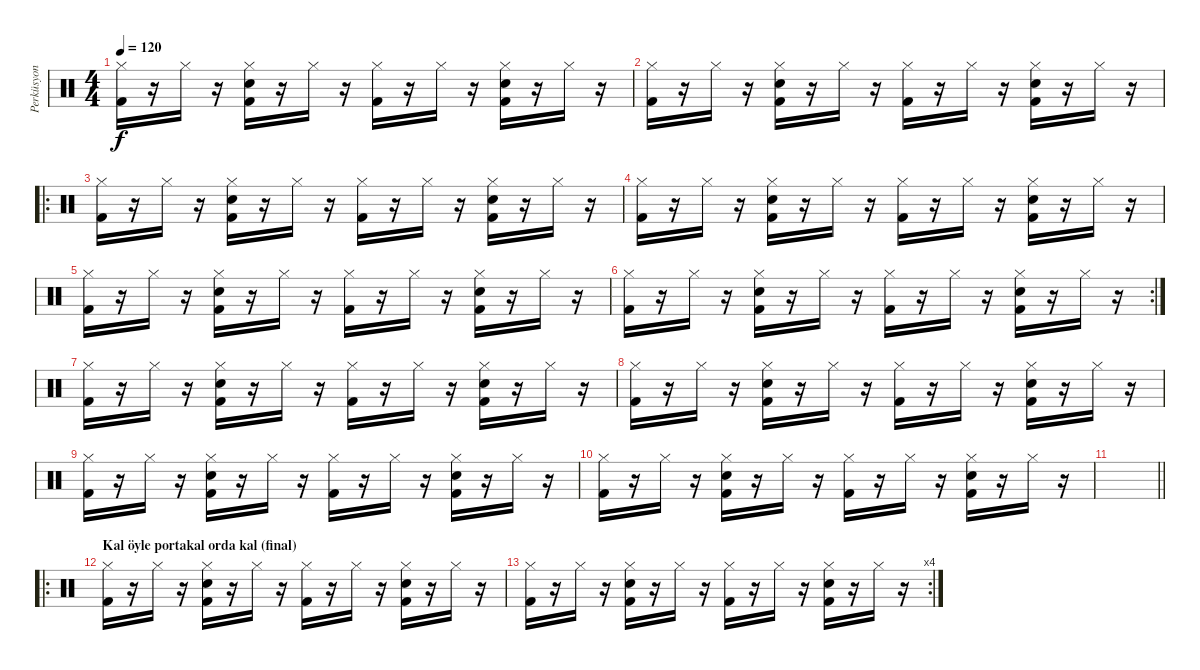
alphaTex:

\track ("Perküsyon" "Perküsyon") {instrument percussion}
\staff {score}
\articulation defaults
\ts (4 4)
\tempo 120
\clef neutral
\ks c
("Hi-Hat (closed)" "Kick (hit) 2").16{dy f} r.16 "Hi-Hat (closed)".16 r.16 ("Hi-Hat (closed)" "Electric Snare (hit)" "Kick (hit) 2").16 r.16 "Hi-Hat (closed)".16 r.16 ("Hi-Hat (closed)" "Kick (hit) 2").16 r.16 "Hi-Hat (closed)".16 r.16 ("Hi-Hat (closed)" "Electric Snare (hit)" "Kick (hit) 2").16 r.16 "Hi-Hat (closed)".16 r.16 |
("Hi-Hat (closed)" "Kick (hit) 2").16 r.16 "Hi-Hat (closed)".16 r.16 ("Hi-Hat (closed)" "Electric Snare (hit)" "Kick (hit) 2").16 r.16 "Hi-Hat (closed)".16 r.16 ("Hi-Hat (closed)" "Kick (hit) 2").16 r.16 "Hi-Hat (closed)".16 r.16 ("Hi-Hat (closed)" "Electric Snare (hit)" "Kick (hit) 2").16 r.16 "Hi-Hat (closed)".16 r.16 |
\ro
("Hi-Hat (closed)" "Kick (hit) 2").16 r.16 "Hi-Hat (closed)".16 r.16 ("Hi-Hat (closed)" "Electric Snare (hit)" "Kick (hit) 2").16 r.16 "Hi-Hat (closed)".16 r.16 ("Hi-Hat (closed)" "Kick (hit) 2").16 r.16 "Hi-Hat (closed)".16 r.16 ("Hi-Hat (closed)" "Electric Snare (hit)" "Kick (hit) 2").16 r.16 "Hi-Hat (closed)".16 r.16 |
("Hi-Hat (closed)" "Kick (hit) 2").16 r.16 "Hi-Hat (closed)".16 r.16 ("Hi-Hat (closed)" "Electric Snare (hit)" "Kick (hit) 2").16 r.16 "Hi-Hat (closed)".16 r.16 ("Hi-Hat (closed)" "Kick (hit) 2").16 r.16 "Hi-Hat (closed)".16 r.16 ("Hi-Hat (closed)" "Electric Snare (hit)" "Kick (hit) 2").16 r.16 "Hi-Hat (closed)".16 r.16 |
("Hi-Hat (closed)" "Kick (hit) 2").16 r.16 "Hi-Hat (closed)".16 r.16 ("Hi-Hat (closed)" "Electric Snare (hit)" "Kick (hit) 2").16 r.16 "Hi-Hat (closed)".16 r.16 ("Hi-Hat (closed)" "Kick (hit) 2").16 r.16 "Hi-Hat (closed)".16 r.16 ("Hi-Hat (closed)" "Electric Snare (hit)" "Kick (hit) 2").16 r.16 "Hi-Hat (closed)".16 r.16 |
\rc 2
("Hi-Hat (closed)" "Kick (hit) 2").16 r.16 "Hi-Hat (closed)".16 r.16 ("Hi-Hat (closed)" "Electric Snare (hit)" "Kick (hit) 2").16 r.16 "Hi-Hat (closed)".16 r.16 ("Hi-Hat (closed)" "Kick (hit) 2").16 r.16 "Hi-Hat (closed)".16 r.16 ("Hi-Hat (closed)" "Electric Snare (hit)" "Kick (hit) 2").16 r.16 "Hi-Hat (closed)".16 r.16 |
("Hi-Hat (closed)" "Kick (hit) 2").16 r.16 "Hi-Hat (closed)".16 r.16 ("Hi-Hat (closed)" "Electric Snare (hit)" "Kick (hit) 2").16 r.16 "Hi-Hat (closed)".16 r.16 ("Hi-Hat (closed)" "Kick (hit) 2").16 r.16 "Hi-Hat (closed)".16 r.16 ("Hi-Hat (closed)" "Electric Snare (hit)" "Kick (hit) 2").16 r.16 "Hi-Hat (closed)".16 r.16 |
("Hi-Hat (closed)" "Kick (hit) 2").16 r.16 "Hi-Hat (closed)".16 r.16 ("Hi-Hat (closed)" "Electric Snare (hit)" "Kick (hit) 2").16 r.16 "Hi-Hat (closed)".16 r.16 ("Hi-Hat (closed)" "Kick (hit) 2").16 r.16 "Hi-Hat (closed)".16 r.16 ("Hi-Hat (closed)" "Electric Snare (hit)" "Kick (hit) 2").16 r.16 "Hi-Hat (closed)".16 r.16 |
("Hi-Hat (closed)" "Kick (hit) 2").16 r.16 "Hi-Hat (closed)".16 r.16 ("Hi-Hat (closed)" "Electric Snare (hit)" "Kick (hit) 2").16 r.16 "Hi-Hat (closed)".16 r.16 ("Hi-Hat (closed)" "Kick (hit) 2").16 r.16 "Hi-Hat (closed)".16 r.16 ("Hi-Hat (closed)" "Electric Snare (hit)" "Kick (hit) 2").16 r.16 "Hi-Hat (closed)".16 r.16 |
("Hi-Hat (closed)" "Kick (hit) 2").16 r.16 "Hi-Hat (closed)".16 r.16 ("Hi-Hat (closed)" "Electric Snare (hit)" "Kick (hit) 2").16 r.16 "Hi-Hat (closed)".16 r.16 ("Hi-Hat (closed)" "Kick (hit) 2").16 r.16 "Hi-Hat (closed)".16 r.16 ("Hi-Hat (closed)" "Electric Snare (hit)" "Kick (hit) 2").16 r.16 "Hi-Hat (closed)".16 r.16 |
\barLineRight lightlight
|
\ro
\section ("" "Kal öyle portakal orda kal (final)")
("Hi-Hat (closed)" "Kick (hit) 2").16 r.16 "Hi-Hat (closed)".16 r.16 ("Hi-Hat (closed)" "Electric Snare (hit)" "Kick (hit) 2").16 r.16 "Hi-Hat (closed)".16 r.16 ("Hi-Hat (closed)" "Kick (hit) 2").16 r.16 "Hi-Hat (closed)".16 r.16 ("Hi-Hat (closed)" "Electric Snare (hit)" "Kick (hit) 2").16 r.16 "Hi-Hat (closed)".16 r.16 |
\rc 4
("Hi-Hat (closed)" "Kick (hit) 2").16 r.16 "Hi-Hat (closed)".16 r.16 ("Hi-Hat (closed)" "Electric Snare (hit)" "Kick (hit) 2").16 r.16 "Hi-Hat (closed)".16 r.16 ("Hi-Hat (closed)" "Kick (hit) 2").16 r.16 "Hi-Hat (closed)".16 r.16 ("Hi-Hat (closed)" "Electric Snare (hit)" "Kick (hit) 2").16 r.16 "Hi-Hat (closed)".16 r.16
